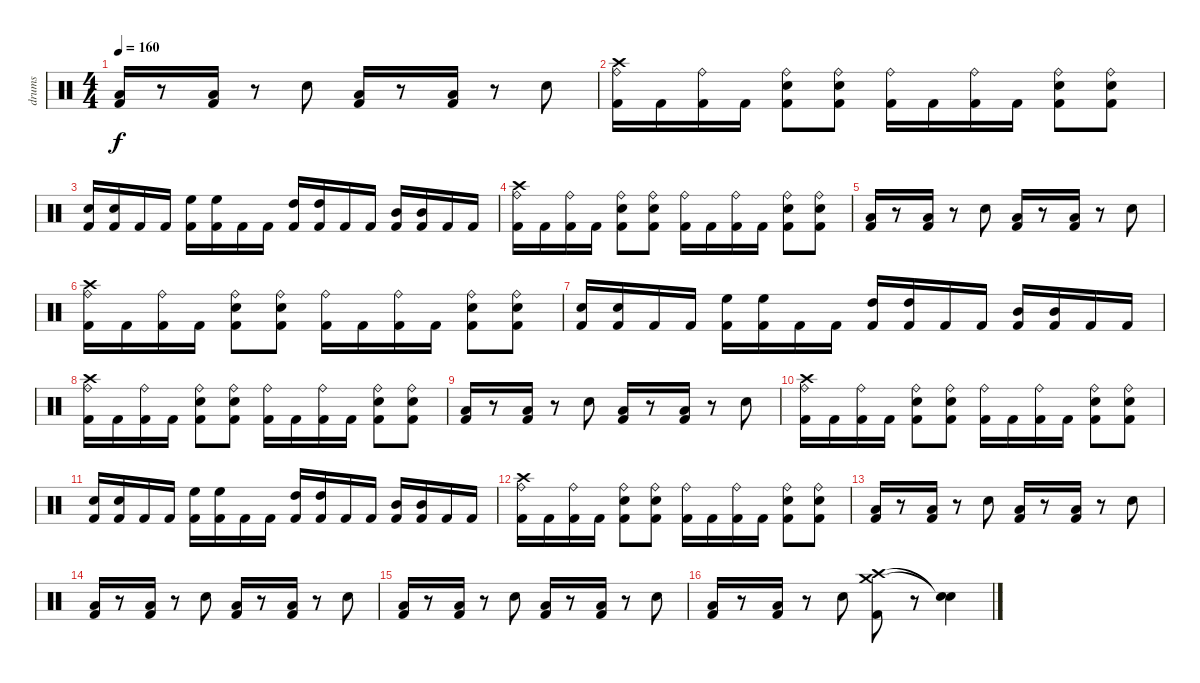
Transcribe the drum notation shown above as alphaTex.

\track ("drums" "drums") {instrument percussion}
\staff {score}
\articulation defaults
\ts (4 4)
\tempo 160
\clef neutral
\ks c
("Low Tom (hit)" "Kick (hit) 2").16{dy f} r.8 ("Low Tom (hit)" "Kick (hit) 2").16 r.8 "Snare (hit) 2".8 ("Low Tom (hit)" "Kick (hit) 2").16 r.8 ("Low Tom (hit)" "Kick (hit) 2").16 r.8 "Snare (hit) 2".8 |
("Crash high (hit)" "Ride (bell)" "Kick (hit) 2").16 "Kick (hit) 2".16 ("Ride (bell)" "Kick (hit) 2").16 "Kick (hit) 2".16 ("Ride (bell)" "Snare (hit) 2" "Kick (hit) 2").8 ("Ride (bell)" "Snare (hit) 2" "Kick (hit) 2").8 ("Ride (bell)" "Kick (hit) 2").16 "Kick (hit) 2".16 ("Ride (bell)" "Kick (hit) 2").16 "Kick (hit) 2".16 ("Ride (bell)" "Snare (hit) 2" "Kick (hit) 2").8 ("Ride (bell)" "Snare (hit) 2" "Kick (hit) 2").8 |
("Snare (hit) 2" "Kick (hit) 2").16 ("Snare (hit) 2" "Kick (hit) 2").16 "Kick (hit) 2".16 "Kick (hit) 2".16 ("High Floor Tom (hit)" "Kick (hit) 2").16 ("High Floor Tom (hit)" "Kick (hit) 2").16 "Kick (hit) 2".16 "Kick (hit) 2".16 ("High Tom (hit)" "Kick (hit) 2").16 ("High Tom (hit)" "Kick (hit) 2").16 "Kick (hit) 2".16 "Kick (hit) 2".16 ("Mid Tom (hit)" "Kick (hit) 2").16 ("Mid Tom (hit)" "Kick (hit) 2").16 "Kick (hit) 2".16 "Kick (hit) 2".16 |
("Crash high (hit)" "Ride (bell)" "Kick (hit) 2").16 "Kick (hit) 2".16 ("Ride (bell)" "Kick (hit) 2").16 "Kick (hit) 2".16 ("Ride (bell)" "Snare (hit) 2" "Kick (hit) 2").8 ("Ride (bell)" "Snare (hit) 2" "Kick (hit) 2").8 ("Ride (bell)" "Kick (hit) 2").16 "Kick (hit) 2".16 ("Ride (bell)" "Kick (hit) 2").16 "Kick (hit) 2".16 ("Ride (bell)" "Snare (hit) 2" "Kick (hit) 2").8 ("Ride (bell)" "Snare (hit) 2" "Kick (hit) 2").8 |
("Low Tom (hit)" "Kick (hit) 2").16 r.8 ("Low Tom (hit)" "Kick (hit) 2").16 r.8 "Snare (hit) 2".8 ("Low Tom (hit)" "Kick (hit) 2").16 r.8 ("Low Tom (hit)" "Kick (hit) 2").16 r.8 "Snare (hit) 2".8 |
("Crash high (hit)" "Ride (bell)" "Kick (hit) 2").16 "Kick (hit) 2".16 ("Ride (bell)" "Kick (hit) 2").16 "Kick (hit) 2".16 ("Ride (bell)" "Snare (hit) 2" "Kick (hit) 2").8 ("Ride (bell)" "Snare (hit) 2" "Kick (hit) 2").8 ("Ride (bell)" "Kick (hit) 2").16 "Kick (hit) 2".16 ("Ride (bell)" "Kick (hit) 2").16 "Kick (hit) 2".16 ("Ride (bell)" "Snare (hit) 2" "Kick (hit) 2").8 ("Ride (bell)" "Snare (hit) 2" "Kick (hit) 2").8 |
("Snare (hit) 2" "Kick (hit) 2").16 ("Snare (hit) 2" "Kick (hit) 2").16 "Kick (hit) 2".16 "Kick (hit) 2".16 ("High Floor Tom (hit)" "Kick (hit) 2").16 ("High Floor Tom (hit)" "Kick (hit) 2").16 "Kick (hit) 2".16 "Kick (hit) 2".16 ("High Tom (hit)" "Kick (hit) 2").16 ("High Tom (hit)" "Kick (hit) 2").16 "Kick (hit) 2".16 "Kick (hit) 2".16 ("Mid Tom (hit)" "Kick (hit) 2").16 ("Mid Tom (hit)" "Kick (hit) 2").16 "Kick (hit) 2".16 "Kick (hit) 2".16 |
("Crash high (hit)" "Ride (bell)" "Kick (hit) 2").16 "Kick (hit) 2".16 ("Ride (bell)" "Kick (hit) 2").16 "Kick (hit) 2".16 ("Ride (bell)" "Snare (hit) 2" "Kick (hit) 2").8 ("Ride (bell)" "Snare (hit) 2" "Kick (hit) 2").8 ("Ride (bell)" "Kick (hit) 2").16 "Kick (hit) 2".16 ("Ride (bell)" "Kick (hit) 2").16 "Kick (hit) 2".16 ("Ride (bell)" "Snare (hit) 2" "Kick (hit) 2").8 ("Ride (bell)" "Snare (hit) 2" "Kick (hit) 2").8 |
("Low Tom (hit)" "Kick (hit) 2").16 r.8 ("Low Tom (hit)" "Kick (hit) 2").16 r.8 "Snare (hit) 2".8 ("Low Tom (hit)" "Kick (hit) 2").16 r.8 ("Low Tom (hit)" "Kick (hit) 2").16 r.8 "Snare (hit) 2".8 |
("Crash high (hit)" "Ride (bell)" "Kick (hit) 2").16 "Kick (hit) 2".16 ("Ride (bell)" "Kick (hit) 2").16 "Kick (hit) 2".16 ("Ride (bell)" "Snare (hit) 2" "Kick (hit) 2").8 ("Ride (bell)" "Snare (hit) 2" "Kick (hit) 2").8 ("Ride (bell)" "Kick (hit) 2").16 "Kick (hit) 2".16 ("Ride (bell)" "Kick (hit) 2").16 "Kick (hit) 2".16 ("Ride (bell)" "Snare (hit) 2" "Kick (hit) 2").8 ("Ride (bell)" "Snare (hit) 2" "Kick (hit) 2").8 |
("Snare (hit) 2" "Kick (hit) 2").16 ("Snare (hit) 2" "Kick (hit) 2").16 "Kick (hit) 2".16 "Kick (hit) 2".16 ("High Floor Tom (hit)" "Kick (hit) 2").16 ("High Floor Tom (hit)" "Kick (hit) 2").16 "Kick (hit) 2".16 "Kick (hit) 2".16 ("High Tom (hit)" "Kick (hit) 2").16 ("High Tom (hit)" "Kick (hit) 2").16 "Kick (hit) 2".16 "Kick (hit) 2".16 ("Mid Tom (hit)" "Kick (hit) 2").16 ("Mid Tom (hit)" "Kick (hit) 2").16 "Kick (hit) 2".16 "Kick (hit) 2".16 |
("Crash high (hit)" "Ride (bell)" "Kick (hit) 2").16 "Kick (hit) 2".16 ("Ride (bell)" "Kick (hit) 2").16 "Kick (hit) 2".16 ("Ride (bell)" "Snare (hit) 2" "Kick (hit) 2").8 ("Ride (bell)" "Snare (hit) 2" "Kick (hit) 2").8 ("Ride (bell)" "Kick (hit) 2").16 "Kick (hit) 2".16 ("Ride (bell)" "Kick (hit) 2").16 "Kick (hit) 2".16 ("Ride (bell)" "Snare (hit) 2" "Kick (hit) 2").8 ("Ride (bell)" "Snare (hit) 2" "Kick (hit) 2").8 |
("Low Tom (hit)" "Kick (hit) 2").16 r.8 ("Low Tom (hit)" "Kick (hit) 2").16 r.8 "Snare (hit) 2".8 ("Low Tom (hit)" "Kick (hit) 2").16 r.8 ("Low Tom (hit)" "Kick (hit) 2").16 r.8 "Snare (hit) 2".8 |
("Low Tom (hit)" "Kick (hit) 2").16 r.8 ("Low Tom (hit)" "Kick (hit) 2").16 r.8 "Snare (hit) 2".8 ("Low Tom (hit)" "Kick (hit) 2").16 r.8 ("Low Tom (hit)" "Kick (hit) 2").16 r.8 "Snare (hit) 2".8 |
("Low Tom (hit)" "Kick (hit) 2").16 r.8 ("Low Tom (hit)" "Kick (hit) 2").16 r.8 "Snare (hit) 2".8 ("Low Tom (hit)" "Kick (hit) 2").16 r.8 ("Low Tom (hit)" "Kick (hit) 2").16 r.8 "Snare (hit) 2".8 |
("Low Tom (hit)" "Kick (hit) 2").16 r.8 ("Low Tom (hit)" "Kick (hit) 2").16 r.8 "Snare (hit) 2".8 ("Crash high (hit)" "Crash medium (hit)" "Kick (hit) 2").8 r.8 ("Snare (hit)"{t} "Snare (hit)"{t}).4
